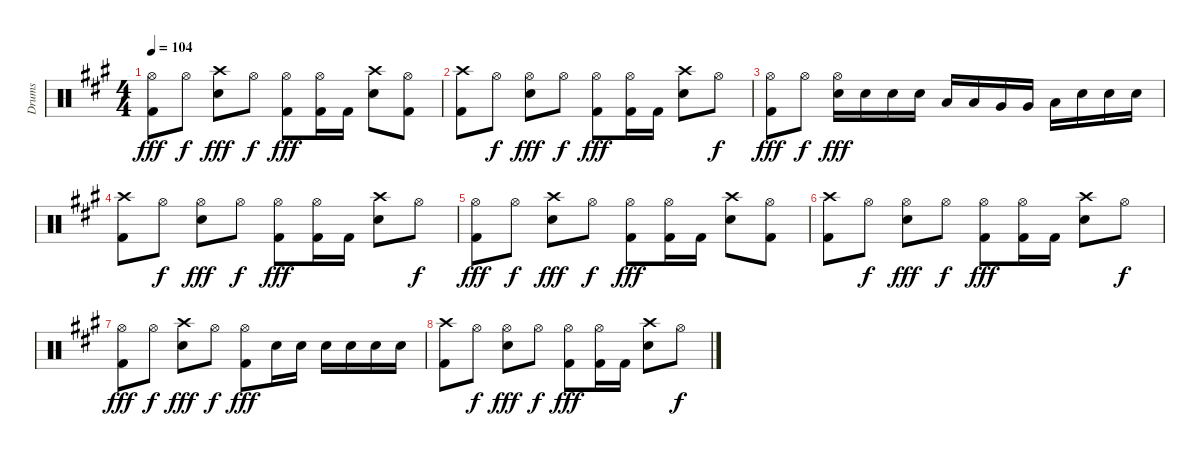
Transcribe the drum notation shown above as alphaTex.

\track ("Drums" "Drums") {instrument percussion}
\staff {score}
\articulation defaults
\ts (4 4)
\tempo 104
\clef neutral
\ks a
("Hi-Hat (open)" "Kick (hit) 2").8{dy fff} "Hi-Hat (open)".8{dy f} ("Crash high (hit)" "Snare (hit) 2").8{dy fff} "Hi-Hat (open)".8{dy f} ("Hi-Hat (open)" "Kick (hit) 2").8{dy fff} ("Hi-Hat (open)" "Kick (hit) 2").16 "Kick (hit) 2".16 ("Crash high (hit)" "Snare (hit) 2").8 ("Hi-Hat (open)" "Kick (hit) 2").8 |
("Crash high (hit)" "Kick (hit) 2").8 "Hi-Hat (open)".8{dy f} ("Hi-Hat (open)" "Snare (hit) 2").8{dy fff} "Hi-Hat (open)".8{dy f} ("Hi-Hat (open)" "Kick (hit) 2").8{dy fff} ("Hi-Hat (open)" "Kick (hit) 2").16 "Kick (hit) 2".16 ("Crash high (hit)" "Snare (hit) 2").8 "Hi-Hat (open)".8{dy f} |
("Hi-Hat (open)" "Kick (hit) 2").8{dy fff} "Hi-Hat (open)".8{dy f} ("Hi-Hat (open)" "Snare (hit) 2").16{dy fff} "Snare (hit) 2".16 "Snare (hit) 2".16 "Snare (hit) 2".16 "Low Tom (hit)".16 "Low Tom (hit)".16 "Very Low Tom (hit)".16 "Very Low Tom (hit)".16 "Low Floor Tom (hit)".16 "Snare (hit) 2".16 "Snare (hit) 2".16 "Snare (hit) 2".16 |
("Crash high (hit)" "Kick (hit) 2").8 "Hi-Hat (open)".8{dy f} ("Hi-Hat (open)" "Snare (hit) 2").8{dy fff} "Hi-Hat (open)".8{dy f} ("Hi-Hat (open)" "Kick (hit) 2").8{dy fff} ("Hi-Hat (open)" "Kick (hit) 2").16 "Kick (hit) 2".16 ("Crash high (hit)" "Snare (hit) 2").8 "Hi-Hat (open)".8{dy f} |
("Hi-Hat (open)" "Kick (hit) 2").8{dy fff} "Hi-Hat (open)".8{dy f} ("Crash high (hit)" "Snare (hit) 2").8{dy fff} "Hi-Hat (open)".8{dy f} ("Hi-Hat (open)" "Kick (hit) 2").8{dy fff} ("Hi-Hat (open)" "Kick (hit) 2").16 "Kick (hit) 2".16 ("Crash high (hit)" "Snare (hit) 2").8 ("Hi-Hat (open)" "Kick (hit) 2").8 |
("Crash high (hit)" "Kick (hit) 2").8 "Hi-Hat (open)".8{dy f} ("Hi-Hat (open)" "Snare (hit) 2").8{dy fff} "Hi-Hat (open)".8{dy f} ("Hi-Hat (open)" "Kick (hit) 2").8{dy fff} ("Hi-Hat (open)" "Kick (hit) 2").16 "Kick (hit) 2".16 ("Crash high (hit)" "Snare (hit) 2").8 "Hi-Hat (open)".8{dy f} |
("Hi-Hat (open)" "Kick (hit) 2").8{dy fff} "Hi-Hat (open)".8{dy f} ("Crash high (hit)" "Snare (hit) 2").8{dy fff} "Hi-Hat (open)".8{dy f} ("Hi-Hat (open)" "Kick (hit) 2").8{dy fff} "Snare (hit) 2".16 "Snare (hit) 2".16 "Snare (hit) 2".16 "Snare (hit) 2".16 "Snare (hit) 2".16 "Snare (hit) 2".16 |
("Crash high (hit)" "Kick (hit) 2").8 "Hi-Hat (open)".8{dy f} ("Hi-Hat (open)" "Snare (hit) 2").8{dy fff} "Hi-Hat (open)".8{dy f} ("Hi-Hat (open)" "Kick (hit) 2").8{dy fff} ("Hi-Hat (open)" "Kick (hit) 2").16 "Kick (hit) 2".16 ("Crash high (hit)" "Snare (hit) 2").8 "Hi-Hat (open)".8{dy f}
